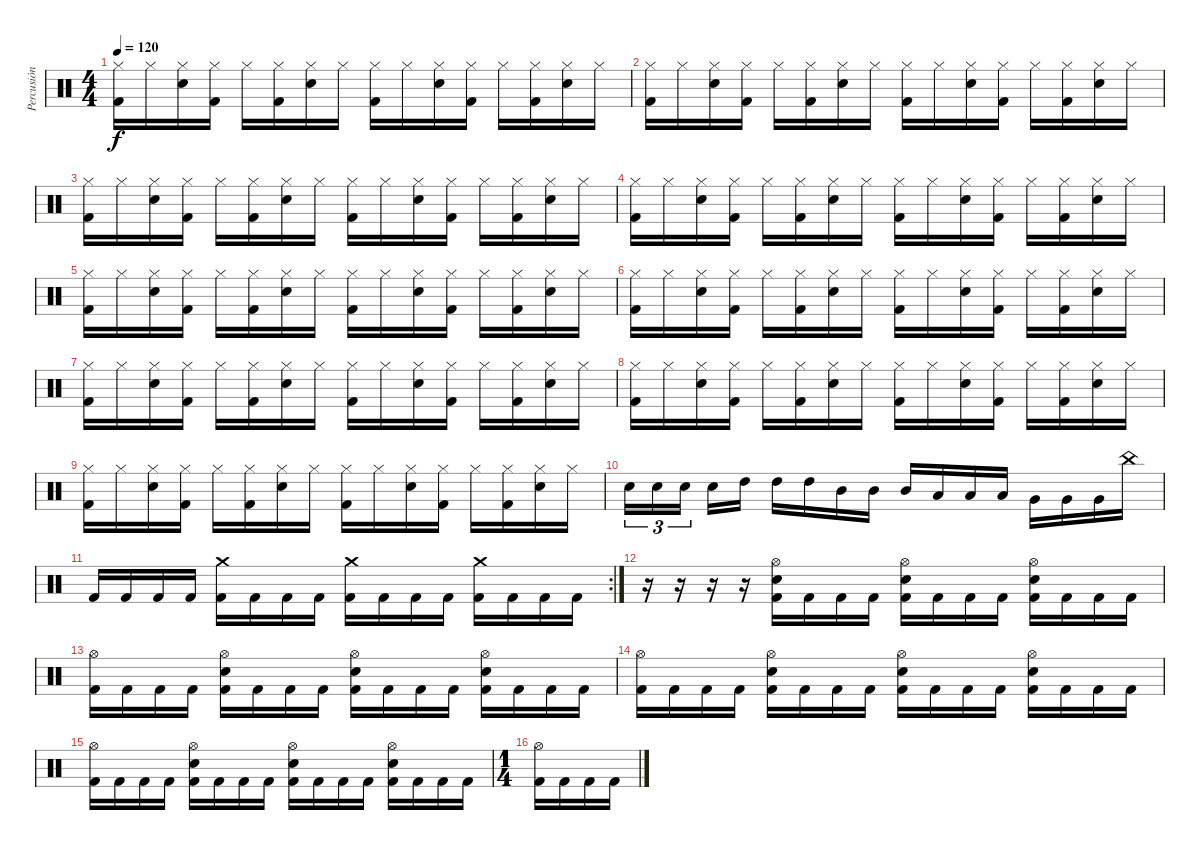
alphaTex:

\track ("Percusión" "Percusión") {instrument percussion}
\staff {score}
\articulation defaults
\ts (4 4)
\tempo 120
\clef neutral
\ks c
("Kick (hit) 2" "Hi-Hat (closed)").16{dy f} "Hi-Hat (closed)".16 ("Snare (hit) 2" "Hi-Hat (closed)").16 ("Kick (hit) 2" "Hi-Hat (closed)").16 "Hi-Hat (closed)".16 ("Kick (hit) 2" "Hi-Hat (closed)").16 ("Snare (hit) 2" "Hi-Hat (closed)").16 "Hi-Hat (closed)".16 ("Kick (hit) 2" "Hi-Hat (closed)").16 "Hi-Hat (closed)".16 ("Snare (hit) 2" "Hi-Hat (closed)").16 ("Kick (hit) 2" "Hi-Hat (closed)").16 "Hi-Hat (closed)".16 ("Kick (hit) 2" "Hi-Hat (closed)").16 ("Snare (hit) 2" "Hi-Hat (closed)").16 "Hi-Hat (closed)".16 |
("Kick (hit) 2" "Hi-Hat (closed)").16 "Hi-Hat (closed)".16 ("Snare (hit) 2" "Hi-Hat (closed)").16 ("Kick (hit) 2" "Hi-Hat (closed)").16 "Hi-Hat (closed)".16 ("Kick (hit) 2" "Hi-Hat (closed)").16 ("Snare (hit) 2" "Hi-Hat (closed)").16 "Hi-Hat (closed)".16 ("Kick (hit) 2" "Hi-Hat (closed)").16 "Hi-Hat (closed)".16 ("Snare (hit) 2" "Hi-Hat (closed)").16 ("Kick (hit) 2" "Hi-Hat (closed)").16 "Hi-Hat (closed)".16 ("Kick (hit) 2" "Hi-Hat (closed)").16 ("Snare (hit) 2" "Hi-Hat (closed)").16 "Hi-Hat (closed)".16 |
("Kick (hit) 2" "Hi-Hat (closed)").16 "Hi-Hat (closed)".16 ("Snare (hit) 2" "Hi-Hat (closed)").16 ("Kick (hit) 2" "Hi-Hat (closed)").16 "Hi-Hat (closed)".16 ("Kick (hit) 2" "Hi-Hat (closed)").16 ("Snare (hit) 2" "Hi-Hat (closed)").16 "Hi-Hat (closed)".16 ("Kick (hit) 2" "Hi-Hat (closed)").16 "Hi-Hat (closed)".16 ("Snare (hit) 2" "Hi-Hat (closed)").16 ("Kick (hit) 2" "Hi-Hat (closed)").16 "Hi-Hat (closed)".16 ("Kick (hit) 2" "Hi-Hat (closed)").16 ("Snare (hit) 2" "Hi-Hat (closed)").16 "Hi-Hat (closed)".16 |
("Kick (hit) 2" "Hi-Hat (closed)").16 "Hi-Hat (closed)".16 ("Snare (hit) 2" "Hi-Hat (closed)").16 ("Kick (hit) 2" "Hi-Hat (closed)").16 "Hi-Hat (closed)".16 ("Kick (hit) 2" "Hi-Hat (closed)").16 ("Snare (hit) 2" "Hi-Hat (closed)").16 "Hi-Hat (closed)".16 ("Kick (hit) 2" "Hi-Hat (closed)").16 "Hi-Hat (closed)".16 ("Snare (hit) 2" "Hi-Hat (closed)").16 ("Kick (hit) 2" "Hi-Hat (closed)").16 "Hi-Hat (closed)".16 ("Kick (hit) 2" "Hi-Hat (closed)").16 ("Snare (hit) 2" "Hi-Hat (closed)").16 "Hi-Hat (closed)".16 |
("Kick (hit) 2" "Hi-Hat (closed)").16 "Hi-Hat (closed)".16 ("Snare (hit) 2" "Hi-Hat (closed)").16 ("Kick (hit) 2" "Hi-Hat (closed)").16 "Hi-Hat (closed)".16 ("Kick (hit) 2" "Hi-Hat (closed)").16 ("Snare (hit) 2" "Hi-Hat (closed)").16 "Hi-Hat (closed)".16 ("Kick (hit) 2" "Hi-Hat (closed)").16 "Hi-Hat (closed)".16 ("Snare (hit) 2" "Hi-Hat (closed)").16 ("Kick (hit) 2" "Hi-Hat (closed)").16 "Hi-Hat (closed)".16 ("Kick (hit) 2" "Hi-Hat (closed)").16 ("Snare (hit) 2" "Hi-Hat (closed)").16 "Hi-Hat (closed)".16 |
("Kick (hit) 2" "Hi-Hat (closed)").16 "Hi-Hat (closed)".16 ("Snare (hit) 2" "Hi-Hat (closed)").16 ("Kick (hit) 2" "Hi-Hat (closed)").16 "Hi-Hat (closed)".16 ("Kick (hit) 2" "Hi-Hat (closed)").16 ("Snare (hit) 2" "Hi-Hat (closed)").16 "Hi-Hat (closed)".16 ("Kick (hit) 2" "Hi-Hat (closed)").16 "Hi-Hat (closed)".16 ("Snare (hit) 2" "Hi-Hat (closed)").16 ("Kick (hit) 2" "Hi-Hat (closed)").16 "Hi-Hat (closed)".16 ("Kick (hit) 2" "Hi-Hat (closed)").16 ("Snare (hit) 2" "Hi-Hat (closed)").16 "Hi-Hat (closed)".16 |
("Kick (hit) 2" "Hi-Hat (closed)").16 "Hi-Hat (closed)".16 ("Snare (hit) 2" "Hi-Hat (closed)").16 ("Kick (hit) 2" "Hi-Hat (closed)").16 "Hi-Hat (closed)".16 ("Kick (hit) 2" "Hi-Hat (closed)").16 ("Snare (hit) 2" "Hi-Hat (closed)").16 "Hi-Hat (closed)".16 ("Kick (hit) 2" "Hi-Hat (closed)").16 "Hi-Hat (closed)".16 ("Snare (hit) 2" "Hi-Hat (closed)").16 ("Kick (hit) 2" "Hi-Hat (closed)").16 "Hi-Hat (closed)".16 ("Kick (hit) 2" "Hi-Hat (closed)").16 ("Snare (hit) 2" "Hi-Hat (closed)").16 "Hi-Hat (closed)".16 |
("Kick (hit) 2" "Hi-Hat (closed)").16 "Hi-Hat (closed)".16 ("Snare (hit) 2" "Hi-Hat (closed)").16 ("Kick (hit) 2" "Hi-Hat (closed)").16 "Hi-Hat (closed)".16 ("Kick (hit) 2" "Hi-Hat (closed)").16 ("Snare (hit) 2" "Hi-Hat (closed)").16 "Hi-Hat (closed)".16 ("Kick (hit) 2" "Hi-Hat (closed)").16 "Hi-Hat (closed)".16 ("Snare (hit) 2" "Hi-Hat (closed)").16 ("Kick (hit) 2" "Hi-Hat (closed)").16 "Hi-Hat (closed)".16 ("Kick (hit) 2" "Hi-Hat (closed)").16 ("Snare (hit) 2" "Hi-Hat (closed)").16 "Hi-Hat (closed)".16 |
("Kick (hit) 2" "Hi-Hat (closed)").16 "Hi-Hat (closed)".16 ("Snare (hit) 2" "Hi-Hat (closed)").16 ("Kick (hit) 2" "Hi-Hat (closed)").16 "Hi-Hat (closed)".16 ("Kick (hit) 2" "Hi-Hat (closed)").16 ("Snare (hit) 2" "Hi-Hat (closed)").16 "Hi-Hat (closed)".16 ("Kick (hit) 2" "Hi-Hat (closed)").16 "Hi-Hat (closed)".16 ("Snare (hit) 2" "Hi-Hat (closed)").16 ("Kick (hit) 2" "Hi-Hat (closed)").16 "Hi-Hat (closed)".16 ("Kick (hit) 2" "Hi-Hat (closed)").16 ("Snare (hit) 2" "Hi-Hat (closed)").16 "Hi-Hat (closed)".16 |
"Electric Snare (hit)".16{tu (3 2)} "Electric Snare (hit)".16{tu (3 2)} "Electric Snare (hit)".16{tu (3 2) beam splitsecondary} "Electric Snare (hit)".16 "High Tom (hit)".16 "High Tom (hit)".16 "High Tom (hit)".16 "Mid Tom (hit)".16 "Mid Tom (hit)".16 "Mid Tom (hit)".16 "Low Tom (hit)".16 "Low Tom (hit)".16 "Low Tom (hit)".16 "Very Low Tom (hit)".16 "Very Low Tom (hit)".16 "Very Low Tom (hit)".16 "China (hit)".16 |
\rc 2 "Kick (hit) 2".16 "Kick (hit) 2".16 "Kick (hit) 2".16 "Kick (hit) 2".16
("Crash medium (hit)" "Kick (hit) 2").16 "Kick (hit) 2".16 "Kick (hit) 2".16 "Kick (hit) 2".16 ("Crash medium (hit)" "Kick (hit) 2").16 "Kick (hit) 2".16 "Kick (hit) 2".16 "Kick (hit) 2".16 ("Crash medium (hit)" "Kick (hit) 2").16 "Kick (hit) 2".16 "Kick (hit) 2".16 "Kick (hit) 2".16 |
r.16 r.16 r.16 r.16 ("Hi-Hat (open)" "Snare (hit) 2" "Kick (hit) 2").16 "Kick (hit) 2".16 "Kick (hit) 2".16 "Kick (hit) 2".16 ("Hi-Hat (open)" "Snare (hit) 2" "Kick (hit) 2").16 "Kick (hit) 2".16 "Kick (hit) 2".16 "Kick (hit) 2".16 ("Hi-Hat (open)" "Snare (hit) 2" "Kick (hit) 2").16 "Kick (hit) 2".16 "Kick (hit) 2".16 "Kick (hit) 2".16 |
("Hi-Hat (open)" "Kick (hit) 2").16 "Kick (hit) 2".16 "Kick (hit) 2".16 "Kick (hit) 2".16 ("Hi-Hat (open)" "Snare (hit) 2" "Kick (hit) 2").16 "Kick (hit) 2".16 "Kick (hit) 2".16 "Kick (hit) 2".16 ("Hi-Hat (open)" "Snare (hit) 2" "Kick (hit) 2").16 "Kick (hit) 2".16 "Kick (hit) 2".16 "Kick (hit) 2".16 ("Hi-Hat (open)" "Snare (hit) 2" "Kick (hit) 2").16 "Kick (hit) 2".16 "Kick (hit) 2".16 "Kick (hit) 2".16 |
("Hi-Hat (open)" "Kick (hit) 2").16 "Kick (hit) 2".16 "Kick (hit) 2".16 "Kick (hit) 2".16 ("Hi-Hat (open)" "Snare (hit) 2" "Kick (hit) 2").16 "Kick (hit) 2".16 "Kick (hit) 2".16 "Kick (hit) 2".16 ("Hi-Hat (open)" "Snare (hit) 2" "Kick (hit) 2").16 "Kick (hit) 2".16 "Kick (hit) 2".16 "Kick (hit) 2".16 ("Hi-Hat (open)" "Snare (hit) 2" "Kick (hit) 2").16 "Kick (hit) 2".16 "Kick (hit) 2".16 "Kick (hit) 2".16 |
("Hi-Hat (open)" "Kick (hit) 2").16 "Kick (hit) 2".16 "Kick (hit) 2".16 "Kick (hit) 2".16 ("Hi-Hat (open)" "Snare (hit) 2" "Kick (hit) 2").16 "Kick (hit) 2".16 "Kick (hit) 2".16 "Kick (hit) 2".16 ("Hi-Hat (open)" "Snare (hit) 2" "Kick (hit) 2").16 "Kick (hit) 2".16 "Kick (hit) 2".16 "Kick (hit) 2".16 ("Hi-Hat (open)" "Snare (hit) 2" "Kick (hit) 2").16 "Kick (hit) 2".16 "Kick (hit) 2".16 "Kick (hit) 2".16 |
\ts (1 4)
("Hi-Hat (open)" "Kick (hit) 2").16 "Kick (hit) 2".16 "Kick (hit) 2".16 "Kick (hit) 2".16
